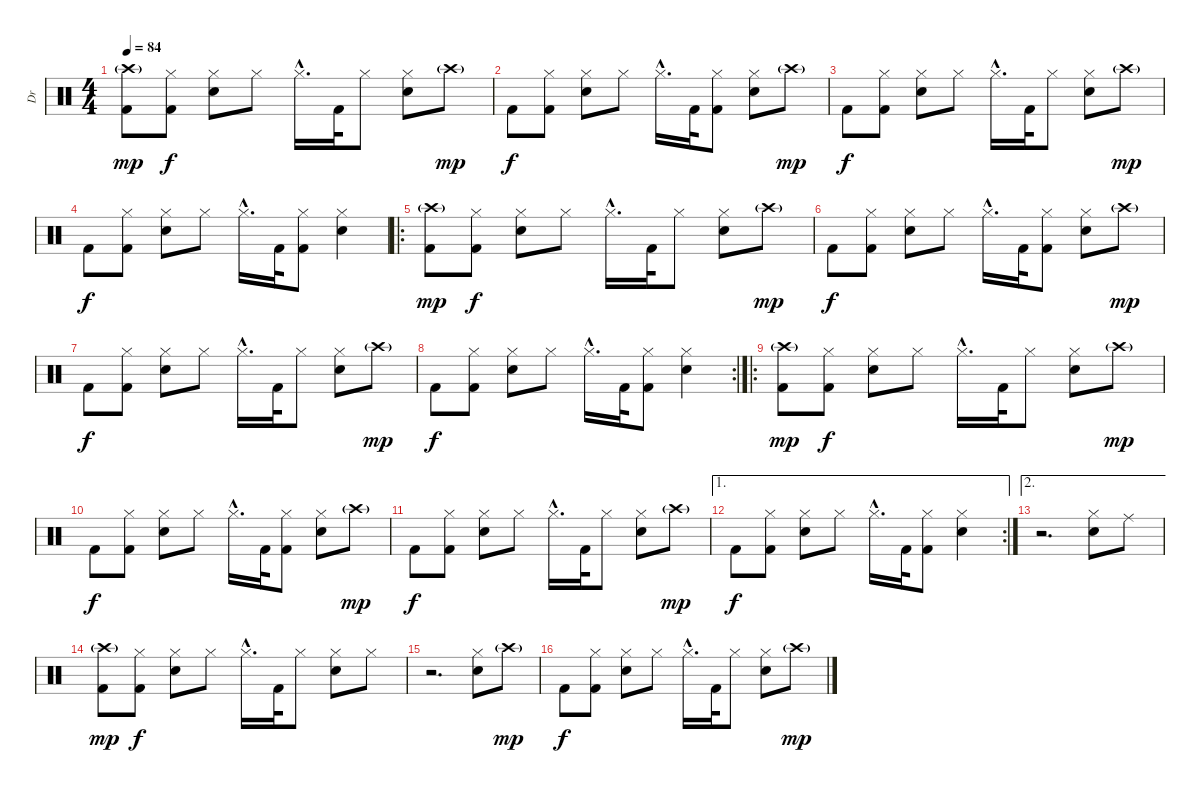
\track ("Dr" "Dr") {instrument percussion}
\staff {score}
\articulation defaults
\ts (4 4)
\tempo 84
\clef neutral
\ks c
("Crash high (hit)"{g} "Kick (hit) 2").8{dy mp} ("Hi-Hat (closed)" "Kick (hit) 2").8{dy f} ("Hi-Hat (closed)" "Electric Snare (hit)").8 "Hi-Hat (closed)".8 "Hi-Hat (closed)"{hac}.16{d} "Kick (hit) 2".32 "Hi-Hat (closed)".8 ("Hi-Hat (closed)" "Electric Snare (hit)").8 "Crash high (hit)"{g}.8{dy mp} |
"Kick (hit) 2".8{dy f} ("Hi-Hat (closed)" "Kick (hit) 2").8 ("Hi-Hat (closed)" "Electric Snare (hit)").8 "Hi-Hat (closed)".8 "Hi-Hat (closed)"{hac}.16{d} "Kick (hit) 2".32 ("Hi-Hat (closed)" "Kick (hit) 2").8 ("Hi-Hat (closed)" "Electric Snare (hit)").8 "Crash high (hit)"{g}.8{dy mp} |
"Kick (hit) 2".8{dy f} ("Hi-Hat (closed)" "Kick (hit) 2").8 ("Hi-Hat (closed)" "Electric Snare (hit)").8 "Hi-Hat (closed)".8 "Hi-Hat (closed)"{hac}.16{d} "Kick (hit) 2".32 "Hi-Hat (closed)".8 ("Hi-Hat (closed)" "Electric Snare (hit)").8 "Crash high (hit)"{g}.8{dy mp} |
"Kick (hit) 2".8{dy f} ("Hi-Hat (closed)" "Kick (hit) 2").8 ("Hi-Hat (closed)" "Electric Snare (hit)").8 "Hi-Hat (closed)".8 "Hi-Hat (closed)"{hac}.16{d} "Kick (hit) 2".32 ("Hi-Hat (closed)" "Kick (hit) 2").8 ("Hi-Hat (closed)" "Electric Snare (hit)").4 |
\ro
("Crash high (hit)"{g} "Kick (hit) 2").8{dy mp} ("Hi-Hat (closed)" "Kick (hit) 2").8{dy f} ("Hi-Hat (closed)" "Electric Snare (hit)").8 "Hi-Hat (closed)".8 "Hi-Hat (closed)"{hac}.16{d} "Kick (hit) 2".32 "Hi-Hat (closed)".8 ("Hi-Hat (closed)" "Electric Snare (hit)").8 "Crash high (hit)"{g}.8{dy mp} |
"Kick (hit) 2".8{dy f} ("Hi-Hat (closed)" "Kick (hit) 2").8 ("Hi-Hat (closed)" "Electric Snare (hit)").8 "Hi-Hat (closed)".8 "Hi-Hat (closed)"{hac}.16{d} "Kick (hit) 2".32 ("Hi-Hat (closed)" "Kick (hit) 2").8 ("Hi-Hat (closed)" "Electric Snare (hit)").8 "Crash high (hit)"{g}.8{dy mp} |
"Kick (hit) 2".8{dy f} ("Hi-Hat (closed)" "Kick (hit) 2").8 ("Hi-Hat (closed)" "Electric Snare (hit)").8 "Hi-Hat (closed)".8 "Hi-Hat (closed)"{hac}.16{d} "Kick (hit) 2".32 "Hi-Hat (closed)".8 ("Hi-Hat (closed)" "Electric Snare (hit)").8 "Crash high (hit)"{g}.8{dy mp} |
\rc 2 "Kick (hit) 2".8{dy f}
("Hi-Hat (closed)" "Kick (hit) 2").8 ("Hi-Hat (closed)" "Electric Snare (hit)").8 "Hi-Hat (closed)".8 "Hi-Hat (closed)"{hac}.16{d} "Kick (hit) 2".32 ("Hi-Hat (closed)" "Kick (hit) 2").8 ("Hi-Hat (closed)" "Electric Snare (hit)").4 |
\ro
("Crash high (hit)"{g} "Kick (hit) 2").8{dy mp} ("Hi-Hat (closed)" "Kick (hit) 2").8{dy f} ("Hi-Hat (closed)" "Electric Snare (hit)").8 "Hi-Hat (closed)".8 "Hi-Hat (closed)"{hac}.16{d} "Kick (hit) 2".32 "Hi-Hat (closed)".8 ("Hi-Hat (closed)" "Electric Snare (hit)").8 "Crash high (hit)"{g}.8{dy mp} |
"Kick (hit) 2".8{dy f} ("Hi-Hat (closed)" "Kick (hit) 2").8 ("Hi-Hat (closed)" "Electric Snare (hit)").8 "Hi-Hat (closed)".8 "Hi-Hat (closed)"{hac}.16{d} "Kick (hit) 2".32 ("Hi-Hat (closed)" "Kick (hit) 2").8 ("Hi-Hat (closed)" "Electric Snare (hit)").8 "Crash high (hit)"{g}.8{dy mp} |
"Kick (hit) 2".8{dy f} ("Hi-Hat (closed)" "Kick (hit) 2").8 ("Hi-Hat (closed)" "Electric Snare (hit)").8 "Hi-Hat (closed)".8 "Hi-Hat (closed)"{hac}.16{d} "Kick (hit) 2".32 "Hi-Hat (closed)".8 ("Hi-Hat (closed)" "Electric Snare (hit)").8 "Crash high (hit)"{g}.8{dy mp} |
\ae 1
\rc 2 "Kick (hit) 2".8{dy f}
("Hi-Hat (closed)" "Kick (hit) 2").8 ("Hi-Hat (closed)" "Electric Snare (hit)").8 "Hi-Hat (closed)".8 "Hi-Hat (closed)"{hac}.16{d} "Kick (hit) 2".32 ("Hi-Hat (closed)" "Kick (hit) 2").8 ("Hi-Hat (closed)" "Electric Snare (hit)").4 |
\ae 2
r.2{d} ("Hi-Hat (closed)" "Electric Snare (hit)").8 "Ride (middle)".8 |
("Crash high (hit)"{g} "Kick (hit) 2").8{dy mp} ("Hi-Hat (closed)" "Kick (hit) 2").8{dy f} ("Hi-Hat (closed)" "Electric Snare (hit)").8 "Hi-Hat (closed)".8 "Hi-Hat (closed)"{hac}.16{d} "Kick (hit) 2".32 "Hi-Hat (closed)".8 ("Hi-Hat (closed)" "Electric Snare (hit)").8 "Hi-Hat (closed)".8 |
r.2{d} ("Hi-Hat (closed)" "Electric Snare (hit)").8 "Crash high (hit)"{g}.8{dy mp} |
"Kick (hit) 2".8{dy f} ("Hi-Hat (closed)" "Kick (hit) 2").8 ("Hi-Hat (closed)" "Electric Snare (hit)").8 "Hi-Hat (closed)".8 "Hi-Hat (closed)"{hac}.16{d} "Kick (hit) 2".32 "Hi-Hat (closed)".8 ("Hi-Hat (closed)" "Electric Snare (hit)").8 "Crash high (hit)"{g}.8{dy mp}
